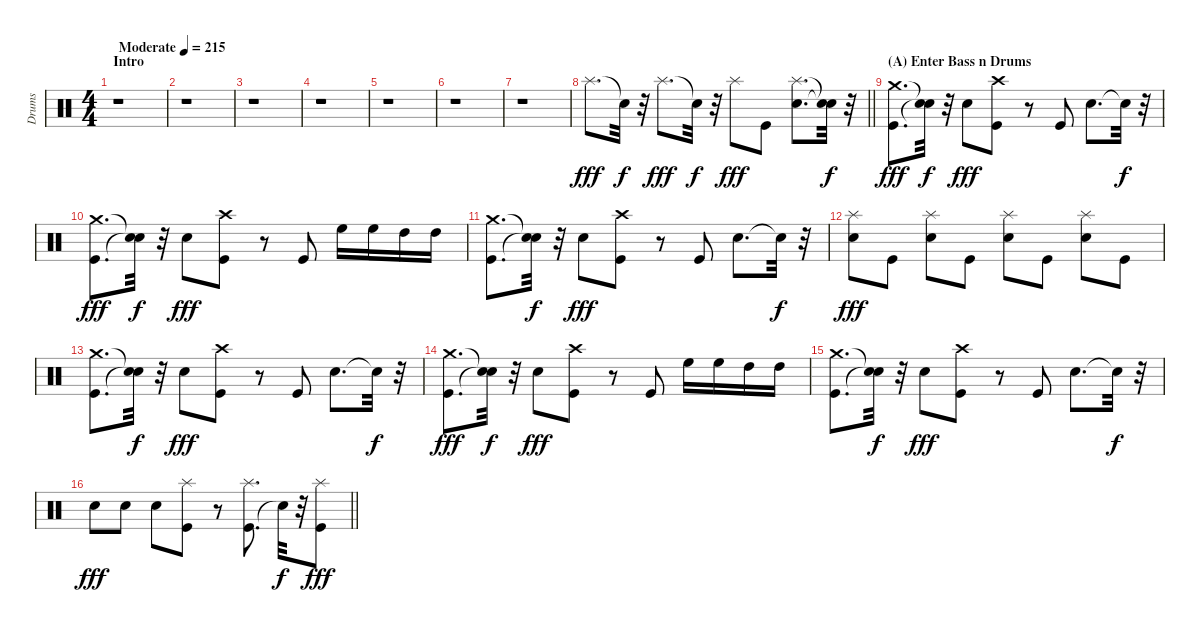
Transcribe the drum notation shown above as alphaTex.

\track ("Drums" "Drums") {instrument percussion}
\staff {score}
\articulation defaults
\ts (4 4)
\section ("" "Intro")
\tempo (215 "Moderate")
\clef neutral
\ks c
r.1{dy fff} |
r.1 |
r.1 |
r.1 |
r.1 |
r.1 |
r.1 |
\barLineRight lightlight "Splash (hit)".8{d} "Snare (hit)"{t}.32{dy f}
r.32 "Splash (hit)".8{d dy fff} "Snare (hit)"{t}.32{dy f} r.32 "Splash (hit)".8{dy fff} "Kick (hit)".8 ("Splash (hit)" "Electric Snare (hit)").8{d} ("Snare (hit)"{t} "Snare (hit)"{t}).32{dy f} r.32 |
\section ("" "(A) Enter Bass n Drums")
("Kick (hit)" "Crash medium (hit)").8{d dy fff} ("Snare (hit)"{t} "Snare (hit)"{t}).32{dy f} r.32 "Electric Snare (hit)".8{dy fff} ("Crash high (hit)" "Kick (hit)").8 r.8 "Kick (hit)".8 "Electric Snare (hit)".8{d} "Snare (hit)"{t}.32{dy f} r.32 |
("Kick (hit)" "Crash medium (hit)").8{d dy fff} ("Snare (hit)"{t} "Snare (hit)"{t}).32{dy f} r.32 "Electric Snare (hit)".8{dy fff} ("Crash high (hit)" "Kick (hit)").8 r.8 "Kick (hit)".8 "High Floor Tom (hit)".16 "High Floor Tom (hit)".16 "High Tom (hit)".16 "High Tom (hit)".16 |
("Kick (hit)" "Crash medium (hit)").8{d} ("Snare (hit)"{t} "Snare (hit)"{t}).32{dy f} r.32 "Electric Snare (hit)".8{dy fff} ("Crash high (hit)" "Kick (hit)").8 r.8 "Kick (hit)".8 "Electric Snare (hit)".8{d} "Snare (hit)"{t}.32{dy f} r.32 |
("Splash (hit)" "Electric Snare (hit)").8{dy fff} "Kick (hit)".8 ("Splash (hit)" "Electric Snare (hit)").8 "Kick (hit)".8 ("Splash (hit)" "Electric Snare (hit)").8 "Kick (hit)".8 ("Splash (hit)" "Electric Snare (hit)").8 "Kick (hit)".8 |
("Kick (hit)" "Crash medium (hit)").8{d} ("Snare (hit)"{t} "Snare (hit)"{t}).32{dy f} r.32 "Electric Snare (hit)".8{dy fff} ("Crash high (hit)" "Kick (hit)").8 r.8 "Kick (hit)".8 "Electric Snare (hit)".8{d} "Snare (hit)"{t}.32{dy f} r.32 |
("Kick (hit)" "Crash medium (hit)").8{d dy fff} ("Snare (hit)"{t} "Snare (hit)"{t}).32{dy f} r.32 "Electric Snare (hit)".8{dy fff} ("Crash high (hit)" "Kick (hit)").8 r.8 "Kick (hit)".8 "High Floor Tom (hit)".16 "High Floor Tom (hit)".16 "High Tom (hit)".16 "High Tom (hit)".16 |
("Kick (hit)" "Crash medium (hit)").8{d} ("Snare (hit)"{t} "Snare (hit)"{t}).32{dy f} r.32 "Electric Snare (hit)".8{dy fff} ("Crash high (hit)" "Kick (hit)").8 r.8 "Kick (hit)".8 "Electric Snare (hit)".8{d} "Snare (hit)"{t}.32{dy f} r.32 |
\barLineRight lightlight "Snare (hit) 2".8{dy fff} "Snare (hit) 2".8 "Snare (hit) 2".8
("Kick (hit)" "Splash (hit)").8 r.8 ("Kick (hit)" "Splash (hit)").8{d} "Snare (hit)"{t}.32{dy f} r.32 ("Kick (hit)" "Splash (hit)").8{dy fff}
